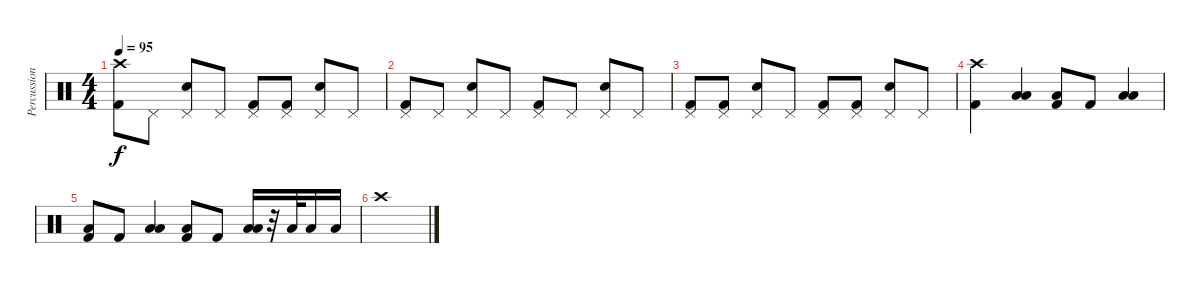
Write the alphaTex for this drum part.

\track ("Percussions" "Percussion") {instrument percussion}
\staff {score}
\articulation defaults
\ts (4 4)
\tempo 95
\clef neutral
\ks c
("Crash high (hit)" "Kick (hit) 2").8{dy f} "Pedal Hi-Hat (hit)".8 ("Pedal Hi-Hat (hit)" "Electric Snare (hit)").8 "Pedal Hi-Hat (hit)".8 ("Pedal Hi-Hat (hit)" "Kick (hit) 2").8 ("Pedal Hi-Hat (hit)" "Kick (hit) 2").8 ("Pedal Hi-Hat (hit)" "Electric Snare (hit)").8 "Pedal Hi-Hat (hit)".8 |
("Pedal Hi-Hat (hit)" "Kick (hit) 2").8 "Pedal Hi-Hat (hit)".8 ("Pedal Hi-Hat (hit)" "Electric Snare (hit)").8 "Pedal Hi-Hat (hit)".8 ("Pedal Hi-Hat (hit)" "Kick (hit) 2").8 "Pedal Hi-Hat (hit)".8 ("Pedal Hi-Hat (hit)" "Electric Snare (hit)").8 "Pedal Hi-Hat (hit)".8 |
("Pedal Hi-Hat (hit)" "Kick (hit) 2").8 ("Pedal Hi-Hat (hit)" "Kick (hit) 2").8 ("Pedal Hi-Hat (hit)" "Electric Snare (hit)").8 "Pedal Hi-Hat (hit)".8 ("Pedal Hi-Hat (hit)" "Kick (hit) 2").8 ("Pedal Hi-Hat (hit)" "Kick (hit) 2").8 ("Pedal Hi-Hat (hit)" "Electric Snare (hit)").8 "Pedal Hi-Hat (hit)".8 |
("Crash high (hit)" "Kick (hit) 2").4 ("Low Tom (hit)" "Low Tom (hit)").4 ("Low Tom (hit)" "Kick (hit) 2").8 "Kick (hit) 2".8 ("Low Tom (hit)" "Low Tom (hit)").4 |
("Low Tom (hit)" "Kick (hit) 2").8 "Kick (hit) 2".8 ("Low Tom (hit)" "Low Tom (hit)").4 ("Low Tom (hit)" "Kick (hit) 2").8 "Kick (hit) 2".8 ("Low Tom (hit)" "Low Tom (hit)").16 r.32 "Low Tom (hit)".32 "Low Tom (hit)".16 "Low Tom (hit)".16 |
"Crash high (hit)".1
